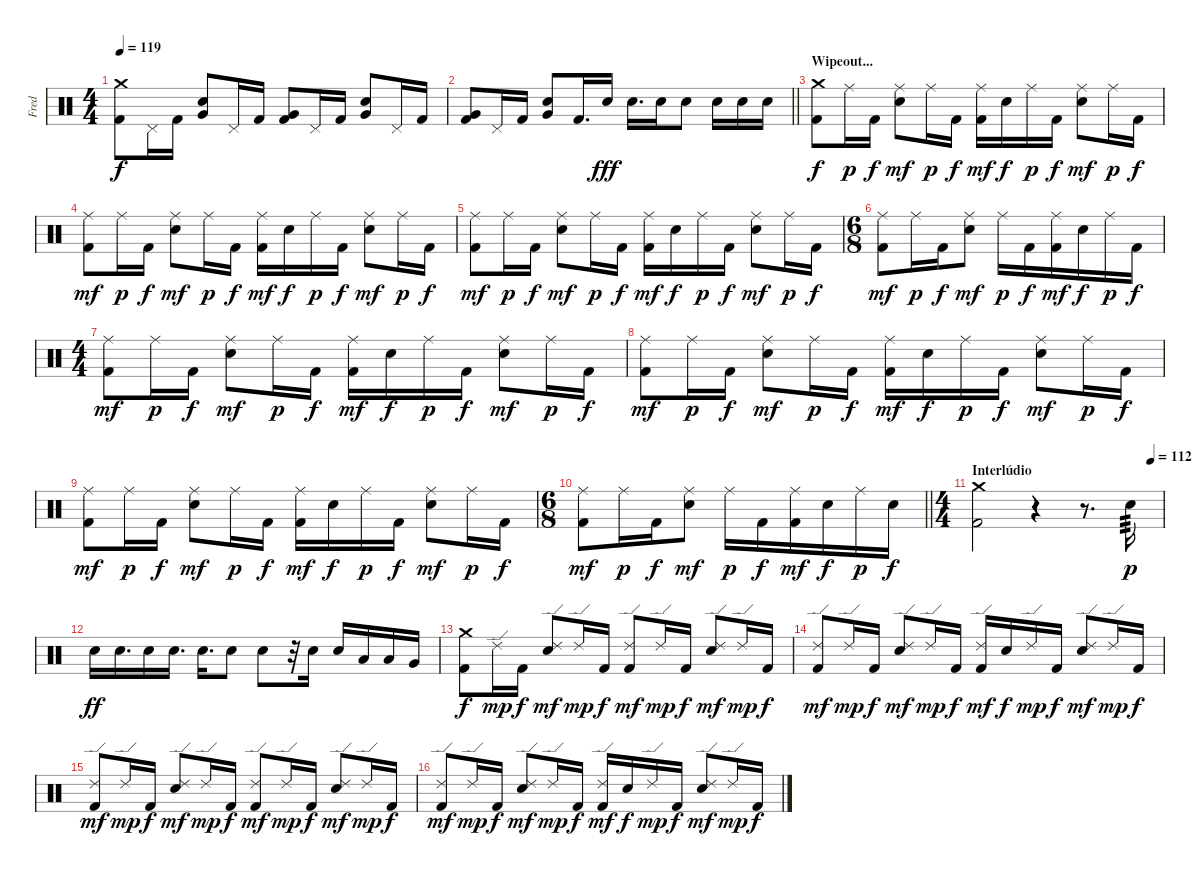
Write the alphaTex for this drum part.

\track ("Fred" "Fred") {instrument percussion}
\staff {score}
\articulation defaults
\ts (4 4)
\tempo 119
\clef neutral
\ks c
("Crash medium (hit)" "Kick (hit) 2").8{dy f} "Pedal Hi-Hat (hit)".16 "Kick (hit) 2".16 ("Very Low Tom (hit)" "Electric Snare (hit)").8 "Pedal Hi-Hat (hit)".16 "Kick (hit) 2".16 ("Very Low Tom (hit)" "Kick (hit) 2").8 "Pedal Hi-Hat (hit)".16 "Kick (hit) 2".16 ("Very Low Tom (hit)" "Electric Snare (hit)").8 "Pedal Hi-Hat (hit)".16 "Kick (hit) 2".16 |
\barLineRight lightlight
("Very Low Tom (hit)" "Kick (hit) 2").8 "Pedal Hi-Hat (hit)".16 "Kick (hit) 2".16 ("Very Low Tom (hit)" "Electric Snare (hit)").8 "Kick (hit) 2".16{d} "Electric Snare (hit)".16{dy fff} "Electric Snare (hit)".16{d} "Electric Snare (hit)".16 "Electric Snare (hit)".8 "Electric Snare (hit)".16 "Electric Snare (hit)".16 "Electric Snare (hit)".16 |
\section ("" "Wipeout...")
("Crash medium (hit)" "Kick (hit) 2").8{dy f} "Ride (middle)".16{dy p} "Kick (hit) 2".16{dy f} ("Ride (middle)" "Electric Snare (hit)").8{dy mf} "Ride (middle)".16{dy p} "Kick (hit) 2".16{dy f} ("Ride (middle)" "Kick (hit) 2").16{dy mf} "Electric Snare (hit)".16{dy f} "Ride (middle)".16{dy p} "Kick (hit) 2".16{dy f} ("Ride (middle)" "Electric Snare (hit)").8{dy mf} "Ride (middle)".16{dy p} "Kick (hit) 2".16{dy f} |
("Ride (middle)" "Kick (hit) 2").8{dy mf} "Ride (middle)".16{dy p} "Kick (hit) 2".16{dy f} ("Ride (middle)" "Electric Snare (hit)").8{dy mf} "Ride (middle)".16{dy p} "Kick (hit) 2".16{dy f} ("Ride (middle)" "Kick (hit) 2").16{dy mf} "Electric Snare (hit)".16{dy f} "Ride (middle)".16{dy p} "Kick (hit) 2".16{dy f} ("Ride (middle)" "Electric Snare (hit)").8{dy mf} "Ride (middle)".16{dy p} "Kick (hit) 2".16{dy f} |
("Ride (middle)" "Kick (hit) 2").8{dy mf} "Ride (middle)".16{dy p} "Kick (hit) 2".16{dy f} ("Ride (middle)" "Electric Snare (hit)").8{dy mf} "Ride (middle)".16{dy p} "Kick (hit) 2".16{dy f} ("Ride (middle)" "Kick (hit) 2").16{dy mf} "Electric Snare (hit)".16{dy f} "Ride (middle)".16{dy p} "Kick (hit) 2".16{dy f} ("Ride (middle)" "Electric Snare (hit)").8{dy mf} "Ride (middle)".16{dy p} "Kick (hit) 2".16{dy f} |
\ts (6 8)
("Ride (middle)" "Kick (hit) 2").8{dy mf} "Ride (middle)".16{dy p} "Kick (hit) 2".16{dy f} ("Ride (middle)" "Electric Snare (hit)").8{dy mf} "Ride (middle)".16{dy p} "Kick (hit) 2".16{dy f} ("Ride (middle)" "Kick (hit) 2").16{dy mf} "Electric Snare (hit)".16{dy f} "Ride (middle)".16{dy p} "Kick (hit) 2".16{dy f} |
\ts (4 4)
("Ride (middle)" "Kick (hit) 2").8{dy mf} "Ride (middle)".16{dy p} "Kick (hit) 2".16{dy f} ("Ride (middle)" "Electric Snare (hit)").8{dy mf} "Ride (middle)".16{dy p} "Kick (hit) 2".16{dy f} ("Ride (middle)" "Kick (hit) 2").16{dy mf} "Electric Snare (hit)".16{dy f} "Ride (middle)".16{dy p} "Kick (hit) 2".16{dy f} ("Ride (middle)" "Electric Snare (hit)").8{dy mf} "Ride (middle)".16{dy p} "Kick (hit) 2".16{dy f} |
("Ride (middle)" "Kick (hit) 2").8{dy mf} "Ride (middle)".16{dy p} "Kick (hit) 2".16{dy f} ("Ride (middle)" "Electric Snare (hit)").8{dy mf} "Ride (middle)".16{dy p} "Kick (hit) 2".16{dy f} ("Ride (middle)" "Kick (hit) 2").16{dy mf} "Electric Snare (hit)".16{dy f} "Ride (middle)".16{dy p} "Kick (hit) 2".16{dy f} ("Ride (middle)" "Electric Snare (hit)").8{dy mf} "Ride (middle)".16{dy p} "Kick (hit) 2".16{dy f} |
("Ride (middle)" "Kick (hit) 2").8{dy mf} "Ride (middle)".16{dy p} "Kick (hit) 2".16{dy f} ("Ride (middle)" "Electric Snare (hit)").8{dy mf} "Ride (middle)".16{dy p} "Kick (hit) 2".16{dy f} ("Ride (middle)" "Kick (hit) 2").16{dy mf} "Electric Snare (hit)".16{dy f} "Ride (middle)".16{dy p} "Kick (hit) 2".16{dy f} ("Ride (middle)" "Electric Snare (hit)").8{dy mf} "Ride (middle)".16{dy p} "Kick (hit) 2".16{dy f} |
\ts (6 8)
\barLineRight lightlight
("Ride (middle)" "Kick (hit) 2").8{dy mf} "Ride (middle)".16{dy p} "Kick (hit) 2".16{dy f} ("Ride (middle)" "Electric Snare (hit)").8{dy mf} "Ride (middle)".16{dy p} "Kick (hit) 2".16{dy f} ("Ride (middle)" "Kick (hit) 2").16{dy mf} "Electric Snare (hit)".16{dy f} "Ride (middle)".16{dy p} "Electric Snare (hit)".16{dy f} |
\ts (4 4)
\section ("" "Interlúdio")
\tempo (112 0.9375)
("Crash medium (hit)" "Kick (hit) 2").2 r.4 r.8{d} "Electric Snare (hit)".16{tp 3 dy p} |
"Electric Snare (hit)".16{dy ff} "Electric Snare (hit)".16{d} "Electric Snare (hit)".16 "Electric Snare (hit)".16{d} "Electric Snare (hit)".16{d} "Electric Snare (hit)".8 "Electric Snare (hit)".8 r.32 "Electric Snare (hit)".16 "Electric Snare (hit)".16 "Low Tom (hit)".16 "Low Tom (hit)".16 "Very Low Tom (hit)".16 |
("Crash medium (hit)" "Kick (hit) 2").8{dy f} "Ride (edge) 2".16{dy mp} "Kick (hit) 2".16{dy f} ("Ride (edge) 2" "Electric Snare (hit)").8{dy mf} "Ride (edge) 2".16{dy mp} "Kick (hit) 2".16{dy f} ("Ride (edge) 2" "Kick (hit) 2").8{dy mf} "Ride (edge) 2".16{dy mp} "Kick (hit) 2".16{dy f} ("Ride (edge) 2" "Electric Snare (hit)").8{dy mf} "Ride (edge) 2".16{dy mp} "Kick (hit) 2".16{dy f} |
("Ride (edge) 2" "Kick (hit) 2").8{dy mf} "Ride (edge) 2".16{dy mp} "Kick (hit) 2".16{dy f} ("Ride (edge) 2" "Electric Snare (hit)").8{dy mf} "Ride (edge) 2".16{dy mp} "Kick (hit) 2".16{dy f} ("Ride (edge) 2" "Kick (hit) 2").16{dy mf} "Electric Snare (hit)".16{dy f} "Ride (edge) 2".16{dy mp} "Kick (hit) 2".16{dy f} ("Ride (edge) 2" "Electric Snare (hit)").8{dy mf} "Ride (edge) 2".16{dy mp} "Kick (hit) 2".16{dy f} |
("Ride (edge) 2" "Kick (hit) 2").8{dy mf} "Ride (edge) 2".16{dy mp} "Kick (hit) 2".16{dy f} ("Ride (edge) 2" "Electric Snare (hit)").8{dy mf} "Ride (edge) 2".16{dy mp} "Kick (hit) 2".16{dy f} ("Ride (edge) 2" "Kick (hit) 2").8{dy mf} "Ride (edge) 2".16{dy mp} "Kick (hit) 2".16{dy f} ("Ride (edge) 2" "Electric Snare (hit)").8{dy mf} "Ride (edge) 2".16{dy mp} "Kick (hit) 2".16{dy f} |
("Ride (edge) 2" "Kick (hit) 2").8{dy mf} "Ride (edge) 2".16{dy mp} "Kick (hit) 2".16{dy f} ("Ride (edge) 2" "Electric Snare (hit)").8{dy mf} "Ride (edge) 2".16{dy mp} "Kick (hit) 2".16{dy f} ("Ride (edge) 2" "Kick (hit) 2").16{dy mf} "Electric Snare (hit)".16{dy f} "Ride (edge) 2".16{dy mp} "Kick (hit) 2".16{dy f} ("Ride (edge) 2" "Electric Snare (hit)").8{dy mf} "Ride (edge) 2".16{dy mp} "Kick (hit) 2".16{dy f}
